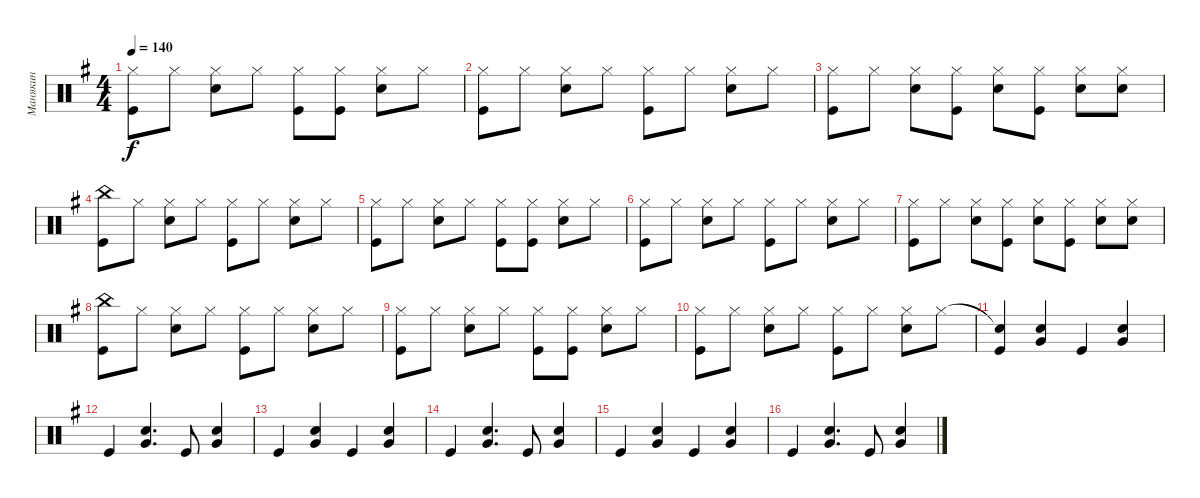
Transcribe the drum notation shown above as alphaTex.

\track ("Манякин" "Манякин") {instrument percussion}
\staff {score}
\articulation defaults
\ts (4 4)
\tempo 140
\clef neutral
\ks g
("Hi-Hat (closed)" "Kick (hit)").8{dy f} "Hi-Hat (closed)".8 ("Hi-Hat (closed)" "Snare (hit) 2").8 "Hi-Hat (closed)".8 ("Hi-Hat (closed)" "Kick (hit)").8 ("Hi-Hat (closed)" "Kick (hit)").8 ("Hi-Hat (closed)" "Snare (hit) 2").8 "Hi-Hat (closed)".8 |
("Hi-Hat (closed)" "Kick (hit)").8 "Hi-Hat (closed)".8 ("Hi-Hat (closed)" "Snare (hit) 2").8 "Hi-Hat (closed)".8 ("Hi-Hat (closed)" "Kick (hit)").8 "Hi-Hat (closed)".8 ("Hi-Hat (closed)" "Snare (hit) 2").8 "Hi-Hat (closed)".8 |
("Hi-Hat (closed)" "Kick (hit)").8 "Hi-Hat (closed)".8 ("Hi-Hat (closed)" "Snare (hit) 2").8 ("Hi-Hat (closed)" "Kick (hit)").8 ("Hi-Hat (closed)" "Snare (hit) 2").8 ("Hi-Hat (closed)" "Kick (hit)").8 ("Hi-Hat (closed)" "Snare (hit) 2").8 ("Hi-Hat (closed)" "Snare (hit) 2").8 |
("China (hit)" "Kick (hit)").8 "Hi-Hat (closed)".8 ("Hi-Hat (closed)" "Snare (hit) 2").8 "Hi-Hat (closed)".8 ("Hi-Hat (closed)" "Kick (hit)").8 "Hi-Hat (closed)".8 ("Hi-Hat (closed)" "Snare (hit) 2").8 "Hi-Hat (closed)".8 |
("Hi-Hat (closed)" "Kick (hit)").8 "Hi-Hat (closed)".8 ("Hi-Hat (closed)" "Snare (hit) 2").8 "Hi-Hat (closed)".8 ("Hi-Hat (closed)" "Kick (hit)").8 ("Hi-Hat (closed)" "Kick (hit)").8 ("Hi-Hat (closed)" "Snare (hit) 2").8 "Hi-Hat (closed)".8 |
("Hi-Hat (closed)" "Kick (hit)").8 "Hi-Hat (closed)".8 ("Hi-Hat (closed)" "Snare (hit) 2").8 "Hi-Hat (closed)".8 ("Hi-Hat (closed)" "Kick (hit)").8 "Hi-Hat (closed)".8 ("Hi-Hat (closed)" "Snare (hit) 2").8 "Hi-Hat (closed)".8 |
("Hi-Hat (closed)" "Kick (hit)").8 "Hi-Hat (closed)".8 ("Hi-Hat (closed)" "Snare (hit) 2").8 ("Hi-Hat (closed)" "Kick (hit)").8 ("Hi-Hat (closed)" "Snare (hit) 2").8 ("Hi-Hat (closed)" "Kick (hit)").8 ("Hi-Hat (closed)" "Snare (hit) 2").8 ("Hi-Hat (closed)" "Snare (hit) 2").8 |
("China (hit)" "Kick (hit)").8 "Hi-Hat (closed)".8 ("Hi-Hat (closed)" "Snare (hit) 2").8 "Hi-Hat (closed)".8 ("Hi-Hat (closed)" "Kick (hit)").8 "Hi-Hat (closed)".8 ("Hi-Hat (closed)" "Snare (hit) 2").8 "Hi-Hat (closed)".8 |
("Hi-Hat (closed)" "Kick (hit)").8 "Hi-Hat (closed)".8 ("Hi-Hat (closed)" "Snare (hit) 2").8 "Hi-Hat (closed)".8 ("Hi-Hat (closed)" "Kick (hit)").8 ("Hi-Hat (closed)" "Kick (hit)").8 ("Hi-Hat (closed)" "Snare (hit) 2").8 "Hi-Hat (closed)".8 |
("Hi-Hat (closed)" "Kick (hit)").8 "Hi-Hat (closed)".8 ("Hi-Hat (closed)" "Snare (hit) 2").8 "Hi-Hat (closed)".8 ("Hi-Hat (closed)" "Kick (hit)").8 "Hi-Hat (closed)".8 ("Hi-Hat (closed)" "Snare (hit) 2").8 "Hi-Hat (closed)".8 |
("Snare (hit)"{t} "Kick (hit)").4 ("Snare (hit) 2" "Very Low Tom (hit)").4 "Kick (hit)".4 ("Snare (hit) 2" "Very Low Tom (hit)").4 |
"Kick (hit)".4 ("Snare (hit) 2" "Very Low Tom (hit)").4{d} "Kick (hit)".8 ("Snare (hit) 2" "Very Low Tom (hit)").4 |
"Kick (hit)".4 ("Snare (hit) 2" "Very Low Tom (hit)").4 "Kick (hit)".4 ("Snare (hit) 2" "Very Low Tom (hit)").4 |
"Kick (hit)".4 ("Snare (hit) 2" "Very Low Tom (hit)").4{d} "Kick (hit)".8 ("Snare (hit) 2" "Very Low Tom (hit)").4 |
"Kick (hit)".4 ("Snare (hit) 2" "Very Low Tom (hit)").4 "Kick (hit)".4 ("Snare (hit) 2" "Very Low Tom (hit)").4 |
"Kick (hit)".4 ("Snare (hit) 2" "Very Low Tom (hit)").4{d} "Kick (hit)".8 ("Snare (hit) 2" "Very Low Tom (hit)").4
